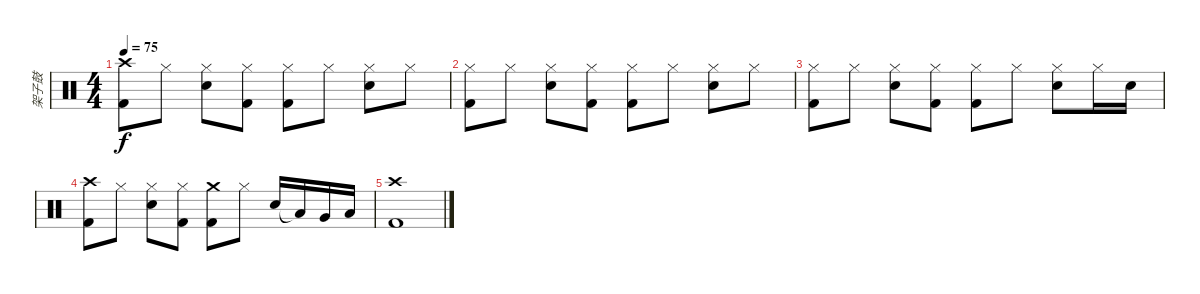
\track ("架子鼓" "架子鼓") {instrument percussion}
\staff {score}
\articulation defaults
\ts (4 4)
\tempo 75
\clef neutral
\ks c
("Kick (hit) 2" "Crash high (hit)").8{dy f} "Hi-Hat (closed)".8 ("Hi-Hat (closed)" "Electric Snare (hit)").8 ("Hi-Hat (closed)" "Kick (hit) 2").8 ("Hi-Hat (closed)" "Kick (hit) 2").8 "Hi-Hat (closed)".8 ("Hi-Hat (closed)" "Electric Snare (hit)").8 "Hi-Hat (closed)".8 |
("Hi-Hat (closed)" "Kick (hit) 2").8 "Hi-Hat (closed)".8 ("Hi-Hat (closed)" "Electric Snare (hit)").8 ("Hi-Hat (closed)" "Kick (hit) 2").8 ("Hi-Hat (closed)" "Kick (hit) 2").8 "Hi-Hat (closed)".8 ("Hi-Hat (closed)" "Electric Snare (hit)").8 "Hi-Hat (closed)".8 |
("Hi-Hat (closed)" "Kick (hit) 2").8 "Hi-Hat (closed)".8 ("Hi-Hat (closed)" "Electric Snare (hit)").8 ("Hi-Hat (closed)" "Kick (hit) 2").8 ("Hi-Hat (closed)" "Kick (hit) 2").8 "Hi-Hat (closed)".8 ("Hi-Hat (closed)" "Electric Snare (hit)").8 "Hi-Hat (closed)".16 "Electric Snare (hit)".16 |
("Crash high (hit)" "Kick (hit) 2").8 "Hi-Hat (closed)".8 ("Hi-Hat (closed)" "Electric Snare (hit)").8 ("Hi-Hat (closed)" "Kick (hit) 2").8 ("Crash medium (hit)" "Kick (hit) 2").8 "Hi-Hat (closed)".8 "Electric Snare (hit)".16 "Low Tom (hit)"{t}.16 "Very Low Tom (hit)".16 "Low Floor Tom (hit)".16 |
("Kick (hit) 2" "Crash high (hit)").1
